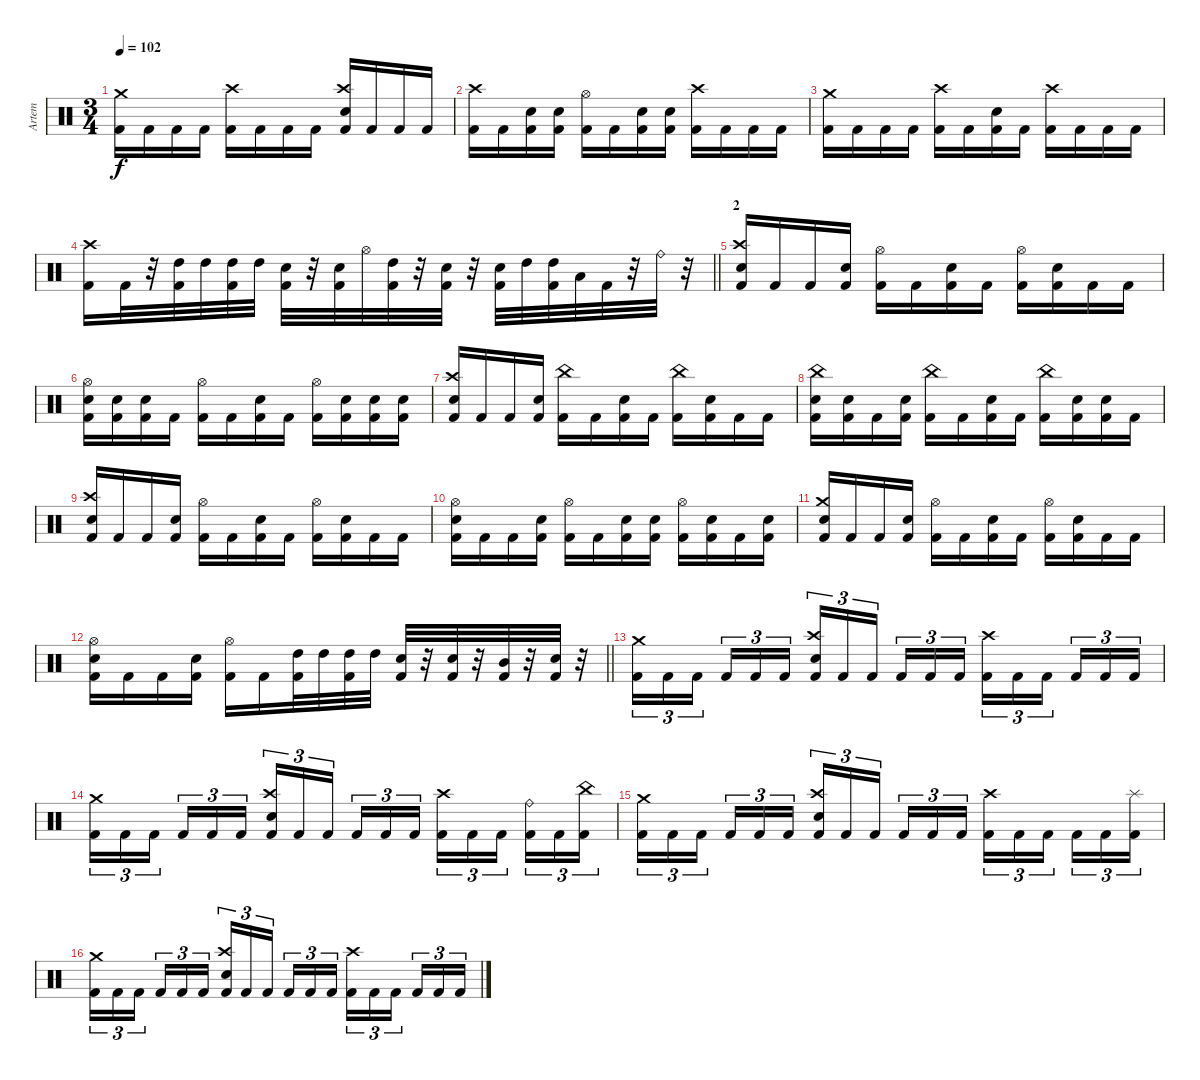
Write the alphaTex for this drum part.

\track ("Artem" "Artem") {instrument percussion}
\staff {score}
\articulation defaults
\ts (3 4)
\tempo 102
\clef neutral
\ks c
("Kick (hit) 2" "Crash medium (hit)").16{dy f} "Kick (hit) 2".16 "Kick (hit) 2".16 "Kick (hit) 2".16 ("Kick (hit) 2" "Crash high (hit)").16 "Kick (hit) 2".16 "Kick (hit) 2".16 "Kick (hit) 2".16 ("Kick (hit) 2" "Crash high (hit)" "Electric Snare (hit)").16 "Kick (hit) 2".16 "Kick (hit) 2".16 "Kick (hit) 2".16 |
("Kick (hit) 2" "Crash high (hit)").16 "Kick (hit) 2".16 ("Kick (hit) 2" "Electric Snare (hit)").16 ("Kick (hit) 2" "Electric Snare (hit)").16 ("Kick (hit) 2" "Hi-Hat (open)").16 "Kick (hit) 2".16 ("Kick (hit) 2" "Electric Snare (hit)").16 ("Kick (hit) 2" "Electric Snare (hit)").16 ("Kick (hit) 2" "Crash high (hit)").16 "Kick (hit) 2".16 "Kick (hit) 2".16 "Kick (hit) 2".16 |
("Kick (hit) 2" "Crash medium (hit)").16 "Kick (hit) 2".16 "Kick (hit) 2".16 "Kick (hit) 2".16 ("Kick (hit) 2" "Crash high (hit)").16 "Kick (hit) 2".16 ("Kick (hit) 2" "Electric Snare (hit)").16 "Kick (hit) 2".16 ("Kick (hit) 2" "Crash high (hit)").16 "Kick (hit) 2".16 "Kick (hit) 2".16 "Kick (hit) 2".16 |
\barLineRight lightlight
("Kick (hit) 2" "Crash high (hit)").16 "Kick (hit) 2".32 r.32 ("Kick (hit) 2" "High Tom (hit)").32 "High Tom (hit)".32 ("Kick (hit) 2" "High Tom (hit)").32 "High Tom (hit)".32 ("Kick (hit) 2" "Electric Snare (hit)").32 r.32 ("Kick (hit) 2" "Electric Snare (hit)").32 "Hi-Hat (open)".32 ("Kick (hit) 2" "High Tom (hit)").32 r.32 ("Kick (hit) 2" "Electric Snare (hit)").32 r.32 ("Kick (hit) 2" "Electric Snare (hit)").32 "High Tom (hit)".32 ("Kick (hit) 2" "High Tom (hit)").32 "Low Floor Tom (hit)".32 "Kick (hit) 2".32 r.32 "Ride (bell)".32 r.32 |
\section ("" "2")
("Kick (hit) 2" "Crash high (hit)" "Electric Snare (hit)").16 "Kick (hit) 2".16 "Kick (hit) 2".16 ("Kick (hit) 2" "Electric Snare (hit)").16 ("Kick (hit) 2" "Hi-Hat (open)").16 "Kick (hit) 2".16 ("Kick (hit) 2" "Electric Snare (hit)").16 "Kick (hit) 2".16 ("Kick (hit) 2" "Hi-Hat (open)").16 ("Kick (hit) 2" "Electric Snare (hit)").16 "Kick (hit) 2".16 "Kick (hit) 2".16 |
("Kick (hit) 2" "Hi-Hat (open)" "Electric Snare (hit)").16 ("Kick (hit) 2" "Electric Snare (hit)").16 ("Kick (hit) 2" "Electric Snare (hit)").16 "Kick (hit) 2".16 ("Kick (hit) 2" "Hi-Hat (open)").16 "Kick (hit) 2".16 ("Kick (hit) 2" "Electric Snare (hit)").16 "Kick (hit) 2".16 ("Kick (hit) 2" "Hi-Hat (open)").16 ("Kick (hit) 2" "Electric Snare (hit)").16 ("Kick (hit) 2" "Electric Snare (hit)").16 ("Kick (hit) 2" "Electric Snare (hit)").16 |
("Kick (hit) 2" "Crash high (hit)" "Electric Snare (hit)").16 "Kick (hit) 2".16 "Kick (hit) 2".16 ("Kick (hit) 2" "Electric Snare (hit)").16 ("Kick (hit) 2" "China (hit)").16 "Kick (hit) 2".16 ("Kick (hit) 2" "Electric Snare (hit)").16 "Kick (hit) 2".16 ("Kick (hit) 2" "China (hit)").16 ("Kick (hit) 2" "Electric Snare (hit)").16 "Kick (hit) 2".16 "Kick (hit) 2".16 |
("Kick (hit) 2" "China (hit)" "Electric Snare (hit)").16 ("Kick (hit) 2" "Electric Snare (hit)").16 "Kick (hit) 2".16 ("Kick (hit) 2" "Electric Snare (hit)").16 ("Kick (hit) 2" "China (hit)").16 "Kick (hit) 2".16 ("Kick (hit) 2" "Electric Snare (hit)").16 "Kick (hit) 2".16 ("Kick (hit) 2" "China (hit)").16 ("Kick (hit) 2" "Electric Snare (hit)").16 ("Kick (hit) 2" "Electric Snare (hit)").16 "Kick (hit) 2".16 |
("Kick (hit) 2" "Crash high (hit)" "Electric Snare (hit)").16 "Kick (hit) 2".16 "Kick (hit) 2".16 ("Kick (hit) 2" "Electric Snare (hit)").16 ("Kick (hit) 2" "Hi-Hat (open)").16 "Kick (hit) 2".16 ("Kick (hit) 2" "Electric Snare (hit)").16 "Kick (hit) 2".16 ("Kick (hit) 2" "Hi-Hat (open)").16 ("Kick (hit) 2" "Electric Snare (hit)").16 "Kick (hit) 2".16 "Kick (hit) 2".16 |
("Kick (hit) 2" "Hi-Hat (open)" "Electric Snare (hit)").16 "Kick (hit) 2".16 "Kick (hit) 2".16 ("Kick (hit) 2" "Electric Snare (hit)").16 ("Kick (hit) 2" "Hi-Hat (open)").16 "Kick (hit) 2".16 ("Kick (hit) 2" "Electric Snare (hit)").16 ("Kick (hit) 2" "Electric Snare (hit)").16 ("Kick (hit) 2" "Hi-Hat (open)").16 ("Kick (hit) 2" "Electric Snare (hit)").16 "Kick (hit) 2".16 ("Kick (hit) 2" "Electric Snare (hit)").16 |
("Kick (hit) 2" "Crash medium (hit)" "Electric Snare (hit)").16 "Kick (hit) 2".16 "Kick (hit) 2".16 ("Kick (hit) 2" "Electric Snare (hit)").16 ("Kick (hit) 2" "Hi-Hat (open)").16 "Kick (hit) 2".16 ("Kick (hit) 2" "Electric Snare (hit)").16 "Kick (hit) 2".16 ("Kick (hit) 2" "Hi-Hat (open)").16 ("Kick (hit) 2" "Electric Snare (hit)").16 "Kick (hit) 2".16 "Kick (hit) 2".16 |
\barLineRight lightlight
("Kick (hit) 2" "Hi-Hat (open)" "Electric Snare (hit)").16 "Kick (hit) 2".16 "Kick (hit) 2".16 ("Kick (hit) 2" "Electric Snare (hit)").16 ("Kick (hit) 2" "Hi-Hat (open)").16 "Kick (hit) 2".16 ("High Tom (hit)" "Kick (hit) 2").32 "High Tom (hit)".32 ("High Tom (hit)" "Kick (hit) 2").32 "High Tom (hit)".32 ("Electric Snare (hit)" "Kick (hit) 2").32 r.32 ("Electric Snare (hit)" "Kick (hit) 2").32 r.32 ("Mid Tom (hit)" "Kick (hit) 2").32 r.32 ("Electric Snare (hit)" "Kick (hit) 2").32 r.32 |
("Kick (hit) 2" "Crash medium (hit)").16{tu (3 2)} "Kick (hit) 2".16{tu (3 2)} "Kick (hit) 2".16{tu (3 2) beam splitsecondary} "Kick (hit) 2".16{tu (3 2)} "Kick (hit) 2".16{tu (3 2)} "Kick (hit) 2".16{tu (3 2)} ("Kick (hit) 2" "Crash high (hit)" "Electric Snare (hit)").16{tu (3 2)} "Kick (hit) 2".16{tu (3 2)} "Kick (hit) 2".16{tu (3 2) beam splitsecondary} "Kick (hit) 2".16{tu (3 2)} "Kick (hit) 2".16{tu (3 2)} "Kick (hit) 2".16{tu (3 2)} ("Kick (hit) 2" "Crash high (hit)").16{tu (3 2)} "Kick (hit) 2".16{tu (3 2)} "Kick (hit) 2".16{tu (3 2) beam splitsecondary} "Kick (hit) 2".16{tu (3 2)} "Kick (hit) 2".16{tu (3 2)} "Kick (hit) 2".16{tu (3 2)} |
("Kick (hit) 2" "Crash medium (hit)").16{tu (3 2)} "Kick (hit) 2".16{tu (3 2)} "Kick (hit) 2".16{tu (3 2) beam splitsecondary} "Kick (hit) 2".16{tu (3 2)} "Kick (hit) 2".16{tu (3 2)} "Kick (hit) 2".16{tu (3 2)} ("Kick (hit) 2" "Crash high (hit)" "Electric Snare (hit)").16{tu (3 2)} "Kick (hit) 2".16{tu (3 2)} "Kick (hit) 2".16{tu (3 2) beam splitsecondary} "Kick (hit) 2".16{tu (3 2)} "Kick (hit) 2".16{tu (3 2)} "Kick (hit) 2".16{tu (3 2)} ("Kick (hit) 2" "Crash high (hit)").16{tu (3 2)} "Kick (hit) 2".16{tu (3 2)} "Kick (hit) 2".16{tu (3 2) beam splitsecondary} ("Kick (hit) 2" "Ride (bell)").16{tu (3 2)} "Kick (hit) 2".16{tu (3 2)} ("Kick (hit) 2" "China (hit)").16{tu (3 2)} |
("Kick (hit) 2" "Crash medium (hit)").16{tu (3 2)} "Kick (hit) 2".16{tu (3 2)} "Kick (hit) 2".16{tu (3 2) beam splitsecondary} "Kick (hit) 2".16{tu (3 2)} "Kick (hit) 2".16{tu (3 2)} "Kick (hit) 2".16{tu (3 2)} ("Kick (hit) 2" "Crash high (hit)" "Electric Snare (hit)").16{tu (3 2)} "Kick (hit) 2".16{tu (3 2)} "Kick (hit) 2".16{tu (3 2) beam splitsecondary} "Kick (hit) 2".16{tu (3 2)} "Kick (hit) 2".16{tu (3 2)} "Kick (hit) 2".16{tu (3 2)} ("Kick (hit) 2" "Crash high (hit)").16{tu (3 2)} "Kick (hit) 2".16{tu (3 2)} "Kick (hit) 2".16{tu (3 2) beam splitsecondary} "Kick (hit) 2".16{tu (3 2)} "Kick (hit) 2".16{tu (3 2)} ("Kick (hit) 2" "Splash (hit)").16{tu (3 2)} |
("Kick (hit) 2" "Crash medium (hit)").16{tu (3 2)} "Kick (hit) 2".16{tu (3 2)} "Kick (hit) 2".16{tu (3 2) beam splitsecondary} "Kick (hit) 2".16{tu (3 2)} "Kick (hit) 2".16{tu (3 2)} "Kick (hit) 2".16{tu (3 2)} ("Kick (hit) 2" "Crash high (hit)" "Electric Snare (hit)").16{tu (3 2)} "Kick (hit) 2".16{tu (3 2)} "Kick (hit) 2".16{tu (3 2) beam splitsecondary} "Kick (hit) 2".16{tu (3 2)} "Kick (hit) 2".16{tu (3 2)} "Kick (hit) 2".16{tu (3 2)} ("Kick (hit) 2" "Crash high (hit)").16{tu (3 2)} "Kick (hit) 2".16{tu (3 2)} "Kick (hit) 2".16{tu (3 2) beam splitsecondary} "Kick (hit) 2".16{tu (3 2)} "Kick (hit) 2".16{tu (3 2)} "Kick (hit) 2".16{tu (3 2)}
